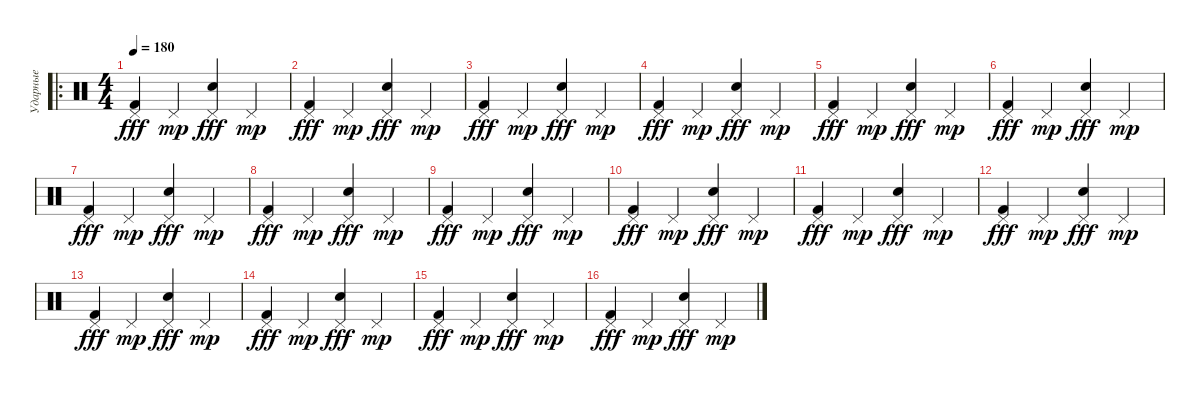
\track ("Ударные" "Ударные") {instrument percussion}
\staff {score}
\articulation defaults
\ro
\ts (4 4)
\tempo 180
\clef neutral
\ks c
("Pedal Hi-Hat (hit)" "Kick (hit) 2").4{dy fff} "Pedal Hi-Hat (hit)".4{dy mp} ("Pedal Hi-Hat (hit)" "Electric Snare (hit)").4{dy fff} "Pedal Hi-Hat (hit)".4{dy mp} |
("Pedal Hi-Hat (hit)" "Kick (hit) 2").4{dy fff} "Pedal Hi-Hat (hit)".4{dy mp} ("Pedal Hi-Hat (hit)" "Electric Snare (hit)").4{dy fff} "Pedal Hi-Hat (hit)".4{dy mp} |
("Pedal Hi-Hat (hit)" "Kick (hit) 2").4{dy fff} "Pedal Hi-Hat (hit)".4{dy mp} ("Pedal Hi-Hat (hit)" "Electric Snare (hit)").4{dy fff} "Pedal Hi-Hat (hit)".4{dy mp} |
("Pedal Hi-Hat (hit)" "Kick (hit) 2").4{dy fff} "Pedal Hi-Hat (hit)".4{dy mp} ("Pedal Hi-Hat (hit)" "Electric Snare (hit)").4{dy fff} "Pedal Hi-Hat (hit)".4{dy mp} |
("Pedal Hi-Hat (hit)" "Kick (hit) 2").4{dy fff} "Pedal Hi-Hat (hit)".4{dy mp} ("Pedal Hi-Hat (hit)" "Electric Snare (hit)").4{dy fff} "Pedal Hi-Hat (hit)".4{dy mp} |
("Pedal Hi-Hat (hit)" "Kick (hit) 2").4{dy fff} "Pedal Hi-Hat (hit)".4{dy mp} ("Pedal Hi-Hat (hit)" "Electric Snare (hit)").4{dy fff} "Pedal Hi-Hat (hit)".4{dy mp} |
("Pedal Hi-Hat (hit)" "Kick (hit) 2").4{dy fff} "Pedal Hi-Hat (hit)".4{dy mp} ("Pedal Hi-Hat (hit)" "Electric Snare (hit)").4{dy fff} "Pedal Hi-Hat (hit)".4{dy mp} |
("Pedal Hi-Hat (hit)" "Kick (hit) 2").4{dy fff} "Pedal Hi-Hat (hit)".4{dy mp} ("Pedal Hi-Hat (hit)" "Electric Snare (hit)").4{dy fff} "Pedal Hi-Hat (hit)".4{dy mp} |
("Pedal Hi-Hat (hit)" "Kick (hit) 2").4{dy fff} "Pedal Hi-Hat (hit)".4{dy mp} ("Pedal Hi-Hat (hit)" "Electric Snare (hit)").4{dy fff} "Pedal Hi-Hat (hit)".4{dy mp} |
("Pedal Hi-Hat (hit)" "Kick (hit) 2").4{dy fff} "Pedal Hi-Hat (hit)".4{dy mp} ("Pedal Hi-Hat (hit)" "Electric Snare (hit)").4{dy fff} "Pedal Hi-Hat (hit)".4{dy mp} |
("Pedal Hi-Hat (hit)" "Kick (hit) 2").4{dy fff} "Pedal Hi-Hat (hit)".4{dy mp} ("Pedal Hi-Hat (hit)" "Electric Snare (hit)").4{dy fff} "Pedal Hi-Hat (hit)".4{dy mp} |
("Pedal Hi-Hat (hit)" "Kick (hit) 2").4{dy fff} "Pedal Hi-Hat (hit)".4{dy mp} ("Pedal Hi-Hat (hit)" "Electric Snare (hit)").4{dy fff} "Pedal Hi-Hat (hit)".4{dy mp} |
("Pedal Hi-Hat (hit)" "Kick (hit) 2").4{dy fff} "Pedal Hi-Hat (hit)".4{dy mp} ("Pedal Hi-Hat (hit)" "Electric Snare (hit)").4{dy fff} "Pedal Hi-Hat (hit)".4{dy mp} |
("Pedal Hi-Hat (hit)" "Kick (hit) 2").4{dy fff} "Pedal Hi-Hat (hit)".4{dy mp} ("Pedal Hi-Hat (hit)" "Electric Snare (hit)").4{dy fff} "Pedal Hi-Hat (hit)".4{dy mp} |
("Pedal Hi-Hat (hit)" "Kick (hit) 2").4{dy fff} "Pedal Hi-Hat (hit)".4{dy mp} ("Pedal Hi-Hat (hit)" "Electric Snare (hit)").4{dy fff} "Pedal Hi-Hat (hit)".4{dy mp} |
("Pedal Hi-Hat (hit)" "Kick (hit) 2").4{dy fff} "Pedal Hi-Hat (hit)".4{dy mp} ("Pedal Hi-Hat (hit)" "Electric Snare (hit)").4{dy fff} "Pedal Hi-Hat (hit)".4{dy mp}
